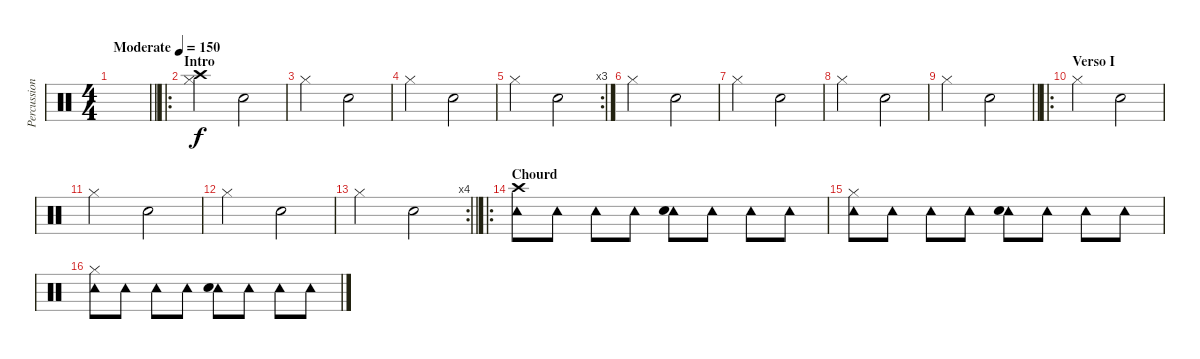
\track ("Percussioni" "Percussion") {instrument percussion}
\staff {score}
\articulation defaults
\ts (4 4)
\tempo (150 "Moderate")
\clef neutral
\barLineRight lightlight
\ks c
|
\ro
\section ("" "Intro")
("Crash high (hit)" "Hi-Hat (closed)").2 "Snare (hit) 2".2 |
"Hi-Hat (closed)".2 "Snare (hit) 2".2 |
"Hi-Hat (closed)".2 "Snare (hit) 2".2 |
\rc 3 "Hi-Hat (closed)".2 "Snare (hit) 2".2
|
"Hi-Hat (closed)".2 "Snare (hit) 2".2 |
"Hi-Hat (closed)".2 "Snare (hit) 2".2 |
"Hi-Hat (closed)".2 "Snare (hit) 2".2 |
\barLineRight lightlight "Hi-Hat (closed)".2 "Snare (hit) 2".2
|
\ro
\section ("" "Verso I")
"Hi-Hat (closed)".2 "Snare (hit) 2".2 |
"Hi-Hat (closed)".2 "Snare (hit) 2".2 |
"Hi-Hat (closed)".2 "Snare (hit) 2".2 |
\rc 4
\barLineRight lightlight "Hi-Hat (closed)".2 "Snare (hit) 2".2
|
\ro
\section ("" "Chourd")
("Tambourine (hit)" "Crash high (hit)").8 "Tambourine (hit)".8 "Tambourine (hit)".8 "Tambourine (hit)".8 ("Tambourine (hit)" "Snare (hit) 2").8 "Tambourine (hit)".8 "Tambourine (hit)".8 "Tambourine (hit)".8 |
("Tambourine (hit)" "Hi-Hat (closed)").8 "Tambourine (hit)".8 "Tambourine (hit)".8 "Tambourine (hit)".8 ("Tambourine (hit)" "Snare (hit) 2").8 "Tambourine (hit)".8 "Tambourine (hit)".8 "Tambourine (hit)".8 |
("Tambourine (hit)" "Hi-Hat (closed)").8 "Tambourine (hit)".8 "Tambourine (hit)".8 "Tambourine (hit)".8 ("Tambourine (hit)" "Snare (hit) 2").8 "Tambourine (hit)".8 "Tambourine (hit)".8 "Tambourine (hit)".8
